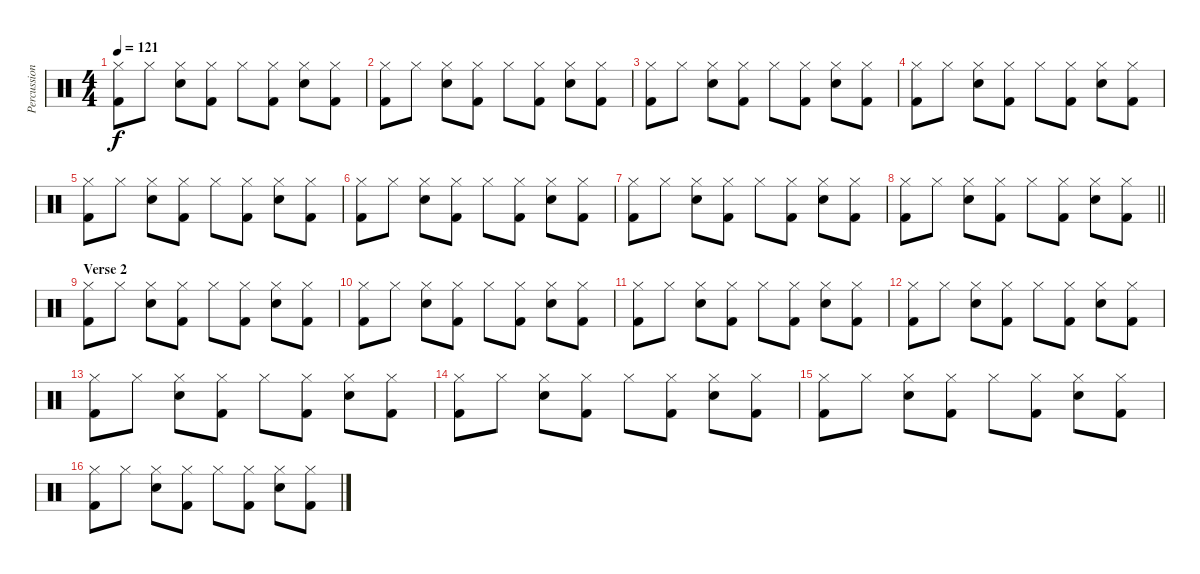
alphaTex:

\track ("Percussion" "Percussion") {instrument percussion}
\staff {score}
\articulation defaults
\ts (4 4)
\tempo 121
\clef neutral
\ks c
("Hi-Hat (closed)" "Kick (hit) 2").8{dy f} "Hi-Hat (closed)".8 ("Hi-Hat (closed)" "Snare (hit) 2").8 ("Hi-Hat (closed)" "Kick (hit) 2").8 "Hi-Hat (closed)".8 ("Hi-Hat (closed)" "Kick (hit) 2").8 ("Hi-Hat (closed)" "Snare (hit) 2").8 ("Hi-Hat (closed)" "Kick (hit) 2").8 |
("Hi-Hat (closed)" "Kick (hit) 2").8 "Hi-Hat (closed)".8 ("Hi-Hat (closed)" "Snare (hit) 2").8 ("Hi-Hat (closed)" "Kick (hit) 2").8 "Hi-Hat (closed)".8 ("Hi-Hat (closed)" "Kick (hit) 2").8 ("Hi-Hat (closed)" "Snare (hit) 2").8 ("Hi-Hat (closed)" "Kick (hit) 2").8 |
("Hi-Hat (closed)" "Kick (hit) 2").8 "Hi-Hat (closed)".8 ("Hi-Hat (closed)" "Snare (hit) 2").8 ("Hi-Hat (closed)" "Kick (hit) 2").8 "Hi-Hat (closed)".8 ("Hi-Hat (closed)" "Kick (hit) 2").8 ("Hi-Hat (closed)" "Snare (hit) 2").8 ("Hi-Hat (closed)" "Kick (hit) 2").8 |
("Hi-Hat (closed)" "Kick (hit) 2").8 "Hi-Hat (closed)".8 ("Hi-Hat (closed)" "Snare (hit) 2").8 ("Hi-Hat (closed)" "Kick (hit) 2").8 "Hi-Hat (closed)".8 ("Hi-Hat (closed)" "Kick (hit) 2").8 ("Hi-Hat (closed)" "Snare (hit) 2").8 ("Hi-Hat (closed)" "Kick (hit) 2").8 |
("Hi-Hat (closed)" "Kick (hit) 2").8 "Hi-Hat (closed)".8 ("Hi-Hat (closed)" "Snare (hit) 2").8 ("Hi-Hat (closed)" "Kick (hit) 2").8 "Hi-Hat (closed)".8 ("Hi-Hat (closed)" "Kick (hit) 2").8 ("Hi-Hat (closed)" "Snare (hit) 2").8 ("Hi-Hat (closed)" "Kick (hit) 2").8 |
("Hi-Hat (closed)" "Kick (hit) 2").8 "Hi-Hat (closed)".8 ("Hi-Hat (closed)" "Snare (hit) 2").8 ("Hi-Hat (closed)" "Kick (hit) 2").8 "Hi-Hat (closed)".8 ("Hi-Hat (closed)" "Kick (hit) 2").8 ("Hi-Hat (closed)" "Snare (hit) 2").8 ("Hi-Hat (closed)" "Kick (hit) 2").8 |
("Hi-Hat (closed)" "Kick (hit) 2").8 "Hi-Hat (closed)".8 ("Hi-Hat (closed)" "Snare (hit) 2").8 ("Hi-Hat (closed)" "Kick (hit) 2").8 "Hi-Hat (closed)".8 ("Hi-Hat (closed)" "Kick (hit) 2").8 ("Hi-Hat (closed)" "Snare (hit) 2").8 ("Hi-Hat (closed)" "Kick (hit) 2").8 |
\barLineRight lightlight
("Hi-Hat (closed)" "Kick (hit) 2").8 "Hi-Hat (closed)".8 ("Hi-Hat (closed)" "Snare (hit) 2").8 ("Hi-Hat (closed)" "Kick (hit) 2").8 "Hi-Hat (closed)".8 ("Hi-Hat (closed)" "Kick (hit) 2").8 ("Hi-Hat (closed)" "Snare (hit) 2").8 ("Hi-Hat (closed)" "Kick (hit) 2").8 |
\section ("" "Verse 2")
("Hi-Hat (closed)" "Kick (hit) 2").8 "Hi-Hat (closed)".8 ("Hi-Hat (closed)" "Snare (hit) 2").8 ("Hi-Hat (closed)" "Kick (hit) 2").8 "Hi-Hat (closed)".8 ("Hi-Hat (closed)" "Kick (hit) 2").8 ("Hi-Hat (closed)" "Snare (hit) 2").8 ("Hi-Hat (closed)" "Kick (hit) 2").8 |
("Hi-Hat (closed)" "Kick (hit) 2").8 "Hi-Hat (closed)".8 ("Hi-Hat (closed)" "Snare (hit) 2").8 ("Hi-Hat (closed)" "Kick (hit) 2").8 "Hi-Hat (closed)".8 ("Hi-Hat (closed)" "Kick (hit) 2").8 ("Hi-Hat (closed)" "Snare (hit) 2").8 ("Hi-Hat (closed)" "Kick (hit) 2").8 |
("Hi-Hat (closed)" "Kick (hit) 2").8 "Hi-Hat (closed)".8 ("Hi-Hat (closed)" "Snare (hit) 2").8 ("Hi-Hat (closed)" "Kick (hit) 2").8 "Hi-Hat (closed)".8 ("Hi-Hat (closed)" "Kick (hit) 2").8 ("Hi-Hat (closed)" "Snare (hit) 2").8 ("Hi-Hat (closed)" "Kick (hit) 2").8 |
("Hi-Hat (closed)" "Kick (hit) 2").8 "Hi-Hat (closed)".8 ("Hi-Hat (closed)" "Snare (hit) 2").8 ("Hi-Hat (closed)" "Kick (hit) 2").8 "Hi-Hat (closed)".8 ("Hi-Hat (closed)" "Kick (hit) 2").8 ("Hi-Hat (closed)" "Snare (hit) 2").8 ("Hi-Hat (closed)" "Kick (hit) 2").8 |
("Hi-Hat (closed)" "Kick (hit) 2").8 "Hi-Hat (closed)".8 ("Hi-Hat (closed)" "Snare (hit) 2").8 ("Hi-Hat (closed)" "Kick (hit) 2").8 "Hi-Hat (closed)".8 ("Hi-Hat (closed)" "Kick (hit) 2").8 ("Hi-Hat (closed)" "Snare (hit) 2").8 ("Hi-Hat (closed)" "Kick (hit) 2").8 |
("Hi-Hat (closed)" "Kick (hit) 2").8 "Hi-Hat (closed)".8 ("Hi-Hat (closed)" "Snare (hit) 2").8 ("Hi-Hat (closed)" "Kick (hit) 2").8 "Hi-Hat (closed)".8 ("Hi-Hat (closed)" "Kick (hit) 2").8 ("Hi-Hat (closed)" "Snare (hit) 2").8 ("Hi-Hat (closed)" "Kick (hit) 2").8 |
("Hi-Hat (closed)" "Kick (hit) 2").8 "Hi-Hat (closed)".8 ("Hi-Hat (closed)" "Snare (hit) 2").8 ("Hi-Hat (closed)" "Kick (hit) 2").8 "Hi-Hat (closed)".8 ("Hi-Hat (closed)" "Kick (hit) 2").8 ("Hi-Hat (closed)" "Snare (hit) 2").8 ("Hi-Hat (closed)" "Kick (hit) 2").8 |
("Hi-Hat (closed)" "Kick (hit) 2").8 "Hi-Hat (closed)".8 ("Hi-Hat (closed)" "Snare (hit) 2").8 ("Hi-Hat (closed)" "Kick (hit) 2").8 "Hi-Hat (closed)".8 ("Hi-Hat (closed)" "Kick (hit) 2").8 ("Hi-Hat (closed)" "Snare (hit) 2").8 ("Hi-Hat (closed)" "Kick (hit) 2").8
